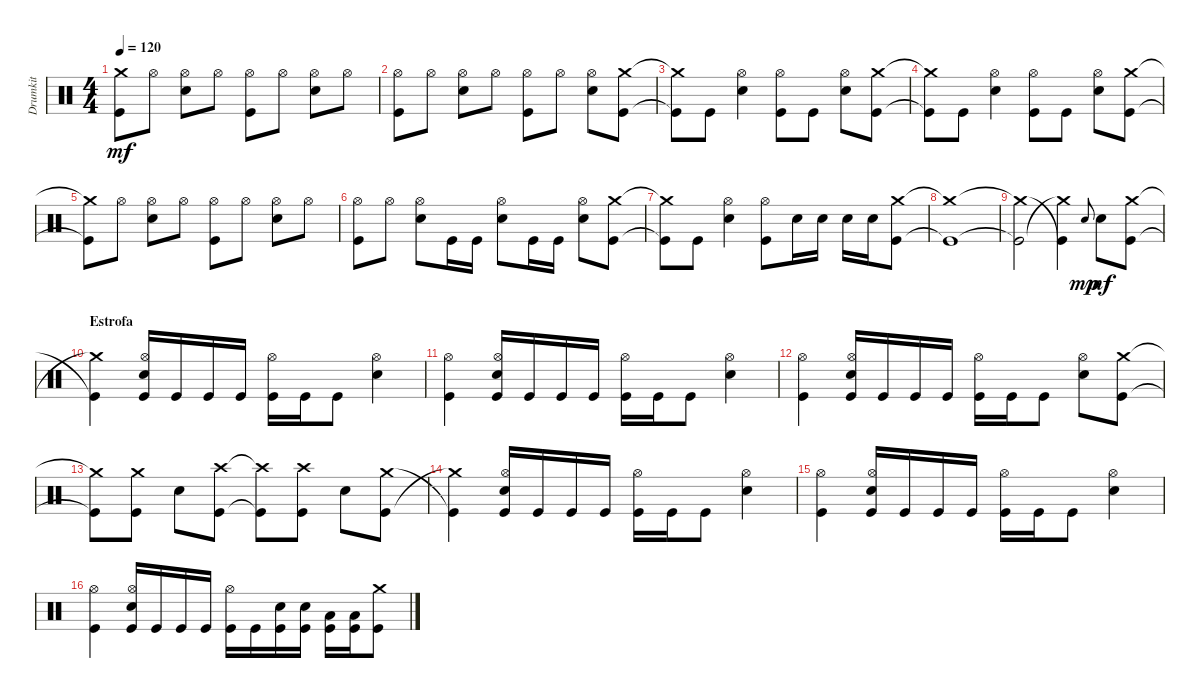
\track ("Drumkit" "Drumkit") {instrument percussion}
\staff {score}
\articulation defaults
\ts (4 4)
\tempo 120
\clef neutral
\ks c
("Kick (hit)"{t} "Crash medium (hit)"{t}).8{dy mf} "Hi-Hat (open)".8 ("Snare (hit) 2" "Hi-Hat (open)").8 "Hi-Hat (open)".8 ("Hi-Hat (open)" "Kick (hit)").8 "Hi-Hat (open)".8 ("Hi-Hat (open)" "Snare (hit) 2").8 "Hi-Hat (open)".8 |
("Hi-Hat (open)" "Kick (hit)").8 "Hi-Hat (open)".8 ("Hi-Hat (open)" "Snare (hit) 2").8 "Hi-Hat (open)".8 ("Hi-Hat (open)" "Kick (hit)").8 "Hi-Hat (open)".8 ("Hi-Hat (open)" "Snare (hit) 2").8 ("Kick (hit)" "Crash medium (hit)").8 |
("Kick (hit)"{t} "Crash medium (hit)"{t}).8 "Kick (hit)".8 ("Snare (hit) 2" "Hi-Hat (open)").4 ("Kick (hit)" "Hi-Hat (open)").8 "Kick (hit)".8 ("Snare (hit) 2" "Hi-Hat (open)").8 ("Kick (hit)" "Crash medium (hit)").8 |
("Kick (hit)"{t} "Crash medium (hit)"{t}).8 "Kick (hit)".8 ("Snare (hit) 2" "Hi-Hat (open)").4 ("Kick (hit)" "Hi-Hat (open)").8 "Kick (hit)".8 ("Snare (hit) 2" "Hi-Hat (open)").8 ("Kick (hit)" "Crash medium (hit)").8 |
("Kick (hit)"{t} "Crash medium (hit)"{t}).8 "Hi-Hat (open)".8 ("Snare (hit) 2" "Hi-Hat (open)").8 "Hi-Hat (open)".8 ("Hi-Hat (open)" "Kick (hit)").8 "Hi-Hat (open)".8 ("Hi-Hat (open)" "Snare (hit) 2").8 "Hi-Hat (open)".8 |
("Hi-Hat (open)" "Kick (hit)").8 "Hi-Hat (open)".8 ("Hi-Hat (open)" "Snare (hit) 2").8 "Kick (hit)".16 "Kick (hit)".16 ("Snare (hit) 2" "Hi-Hat (open)").8 "Kick (hit)".16 "Kick (hit)".16 ("Snare (hit) 2" "Hi-Hat (open)").8 ("Kick (hit)" "Crash medium (hit)").8 |
("Kick (hit)"{t} "Crash medium (hit)"{t}).8 "Kick (hit)".8 ("Snare (hit) 2" "Hi-Hat (open)").4 ("Kick (hit)" "Hi-Hat (open)").8 "Snare (hit) 2".16 "Snare (hit) 2".16 "Snare (hit) 2".16 "Snare (hit) 2".16 ("Kick (hit)" "Crash medium (hit)").8 |
("Kick (hit)"{t} "Crash medium (hit)"{t}).1 |
("Kick (hit)"{t} "Crash medium (hit)"{t}).2 ("Crash medium (hit)"{t} "Kick (hit)"{t}).4 "Snare (hit)".8{gr onbeat dy mp} "Snare (hit) 2".8{dy mf} ("Kick (hit)" "Crash medium (hit)").8 |
\section ("" "Estrofa")
("Crash medium (hit)"{t} "Kick (hit)"{t}).4 ("Kick (hit)" "Snare (hit) 2" "Hi-Hat (open)").16 "Kick (hit)".16 "Kick (hit)".16 "Kick (hit)".16 ("Kick (hit)" "Hi-Hat (open)").16 "Kick (hit)".16 "Kick (hit)".8 ("Snare (hit) 2" "Hi-Hat (open)").4 |
("Kick (hit)" "Hi-Hat (open)").4 ("Kick (hit)" "Snare (hit) 2" "Hi-Hat (open)").16 "Kick (hit)".16 "Kick (hit)".16 "Kick (hit)".16 ("Kick (hit)" "Hi-Hat (open)").16 "Kick (hit)".16 "Kick (hit)".8 ("Snare (hit) 2" "Hi-Hat (open)").4 |
("Kick (hit)" "Hi-Hat (open)").4 ("Kick (hit)" "Snare (hit) 2" "Hi-Hat (open)").16 "Kick (hit)".16 "Kick (hit)".16 "Kick (hit)".16 ("Kick (hit)" "Hi-Hat (open)").16 "Kick (hit)".16 "Kick (hit)".8 ("Snare (hit) 2" "Hi-Hat (open)").8 ("Kick (hit)" "Crash medium (hit)").8 |
("Kick (hit)"{t} "Crash medium (hit)"{t}).8 ("Crash medium (hit)" "Kick (hit)").8 "Snare (hit) 2".8 ("Kick (hit)" "Crash high (hit)").8 ("Kick (hit)"{t} "Crash high (hit)"{t}).8 ("Kick (hit)" "Crash high (hit)").8 "Snare (hit) 2".8 ("Kick (hit)" "Crash medium (hit)").8 |
("Crash medium (hit)"{t} "Kick (hit)"{t}).4 ("Kick (hit)" "Snare (hit) 2" "Hi-Hat (open)").16 "Kick (hit)".16 "Kick (hit)".16 "Kick (hit)".16 ("Kick (hit)" "Hi-Hat (open)").16 "Kick (hit)".16 "Kick (hit)".8 ("Snare (hit) 2" "Hi-Hat (open)").4 |
("Kick (hit)" "Hi-Hat (open)").4 ("Kick (hit)" "Snare (hit) 2" "Hi-Hat (open)").16 "Kick (hit)".16 "Kick (hit)".16 "Kick (hit)".16 ("Kick (hit)" "Hi-Hat (open)").16 "Kick (hit)".16 "Kick (hit)".8 ("Snare (hit) 2" "Hi-Hat (open)").4 |
("Kick (hit)" "Hi-Hat (open)").4 ("Kick (hit)" "Snare (hit) 2" "Hi-Hat (open)").16 "Kick (hit)".16 "Kick (hit)".16 "Kick (hit)".16 ("Kick (hit)" "Hi-Hat (open)").16 "Kick (hit)".16 ("Kick (hit)" "Snare (hit) 2").16 ("Snare (hit) 2" "Kick (hit)").16 ("Kick (hit)" "Low Floor Tom (hit)").16 ("Low Floor Tom (hit)" "Kick (hit)").16 ("Kick (hit)" "Crash medium (hit)").8
